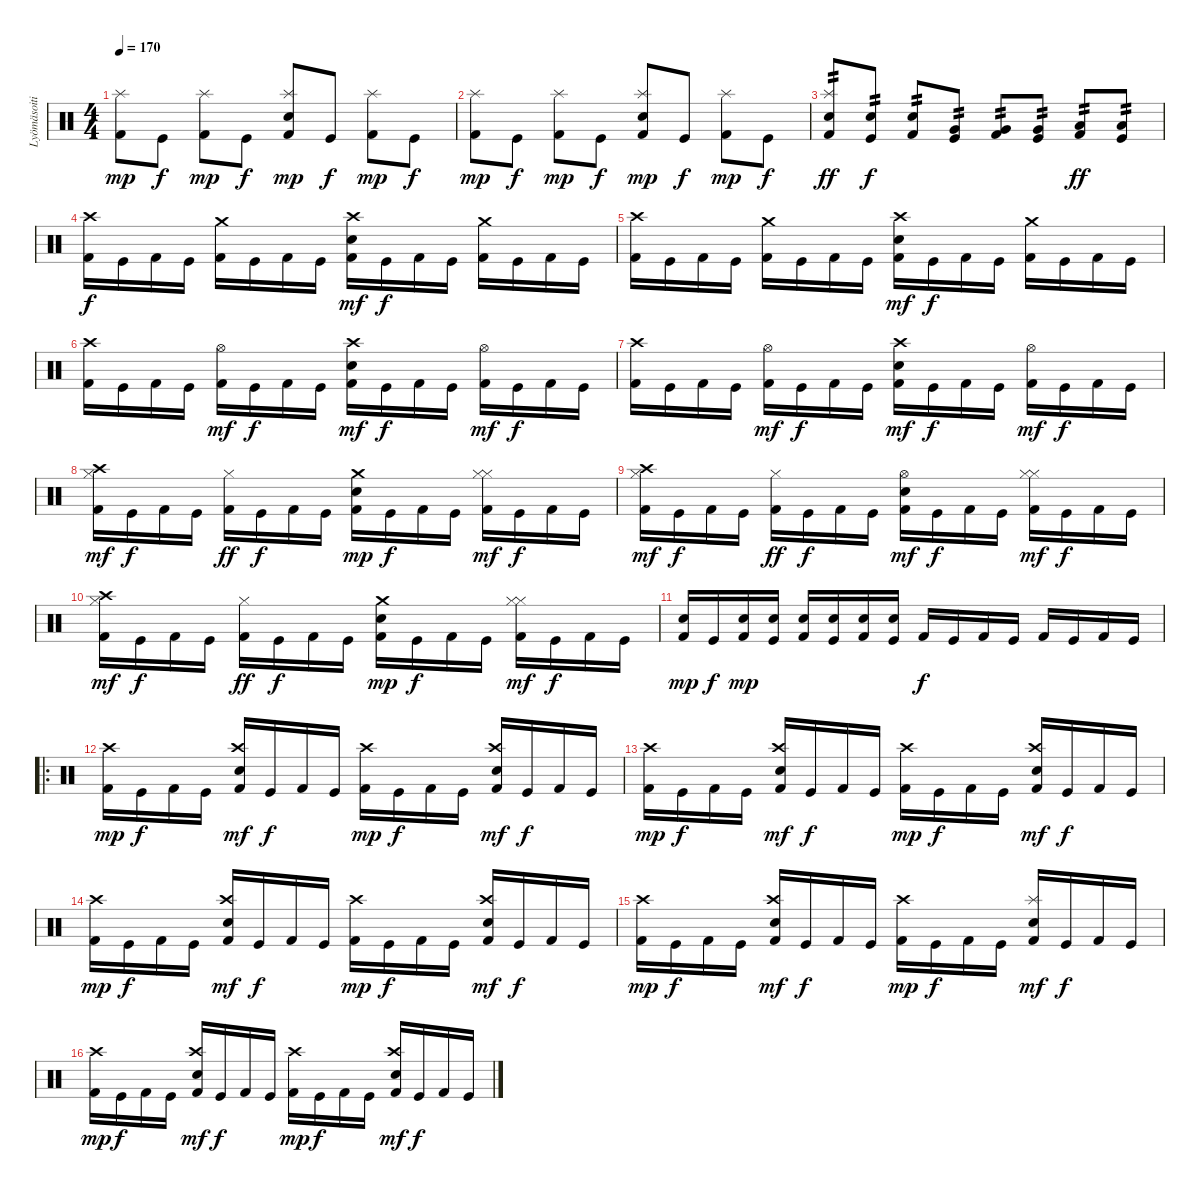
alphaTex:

\track ("Lyömäsoitin" "Lyömäsoiti") {instrument percussion}
\staff {score}
\articulation defaults
\ts (4 4)
\tempo 170
\clef neutral
\ks c
("Kick (hit) 2" "Splash (hit)").8{dy mp} "Kick (hit)".8{dy f} ("Kick (hit) 2" "Splash (hit)").8{dy mp} "Kick (hit)".8{dy f} ("Kick (hit) 2" "Splash (hit)" "Electric Snare (hit)").8{dy mp} "Kick (hit)".8{dy f} ("Kick (hit) 2" "Splash (hit)").8{dy mp} "Kick (hit)".8{dy f} |
("Kick (hit) 2" "Splash (hit)").8{dy mp} "Kick (hit)".8{dy f} ("Kick (hit) 2" "Splash (hit)").8{dy mp} "Kick (hit)".8{dy f} ("Kick (hit) 2" "Splash (hit)" "Electric Snare (hit)").8{dy mp} "Kick (hit)".8{dy f} ("Kick (hit) 2" "Splash (hit)").8{dy mp} "Kick (hit)".8{dy f} |
("Kick (hit) 2" "Electric Snare (hit)" "Splash (hit)").8{tp 2 dy ff} ("Kick (hit)" "Electric Snare (hit)").8{tp 2 dy f} ("Kick (hit) 2" "Electric Snare (hit)").8{tp 2} ("Kick (hit)" "Very Low Tom (hit)").8{tp 2} ("Kick (hit) 2" "Very Low Tom (hit)").8{tp 2} ("Kick (hit)" "Very Low Tom (hit)").8{tp 2} ("Kick (hit) 2" "Low Tom (hit)").8{tp 2 dy ff} ("Kick (hit)" "Low Tom (hit)").8{tp 2} |
("Kick (hit) 2" "Crash high (hit)").16{dy f} "Kick (hit)".16 "Kick (hit) 2".16 "Kick (hit)".16 ("Kick (hit) 2" "Crash medium (hit)").16 "Kick (hit)".16 "Kick (hit) 2".16 "Kick (hit)".16 ("Kick (hit) 2" "Electric Snare (hit)" "Crash high (hit)").16{dy mf} "Kick (hit)".16{dy f} "Kick (hit) 2".16 "Kick (hit)".16 ("Kick (hit) 2" "Crash medium (hit)").16 "Kick (hit)".16 "Kick (hit) 2".16 "Kick (hit)".16 |
("Kick (hit) 2" "Crash high (hit)").16 "Kick (hit)".16 "Kick (hit) 2".16 "Kick (hit)".16 ("Kick (hit) 2" "Crash medium (hit)").16 "Kick (hit)".16 "Kick (hit) 2".16 "Kick (hit)".16 ("Kick (hit) 2" "Electric Snare (hit)" "Crash high (hit)").16{dy mf} "Kick (hit)".16{dy f} "Kick (hit) 2".16 "Kick (hit)".16 ("Kick (hit) 2" "Crash medium (hit)").16 "Kick (hit)".16 "Kick (hit) 2".16 "Kick (hit)".16 |
("Kick (hit) 2" "Crash high (hit)").16 "Kick (hit)".16 "Kick (hit) 2".16 "Kick (hit)".16 ("Kick (hit) 2" "Hi-Hat (open)").16{dy mf} "Kick (hit)".16{dy f} "Kick (hit) 2".16 "Kick (hit)".16 ("Kick (hit) 2" "Electric Snare (hit)" "Crash high (hit)").16{dy mf} "Kick (hit)".16{dy f} "Kick (hit) 2".16 "Kick (hit)".16 ("Kick (hit) 2" "Hi-Hat (open)").16{dy mf} "Kick (hit)".16{dy f} "Kick (hit) 2".16 "Kick (hit)".16 |
("Kick (hit) 2" "Crash high (hit)").16 "Kick (hit)".16 "Kick (hit) 2".16 "Kick (hit)".16 ("Kick (hit) 2" "Hi-Hat (open)").16{dy mf} "Kick (hit)".16{dy f} "Kick (hit) 2".16 "Kick (hit)".16 ("Kick (hit) 2" "Electric Snare (hit)" "Crash high (hit)").16{dy mf} "Kick (hit)".16{dy f} "Kick (hit) 2".16 "Kick (hit)".16 ("Kick (hit) 2" "Hi-Hat (open)").16{dy mf} "Kick (hit)".16{dy f} "Kick (hit) 2".16 "Kick (hit)".16 |
("Kick (hit) 2" "Crash high (hit)" "Hi-Hat (closed)").16{dy mf} "Kick (hit)".16{dy f} "Kick (hit) 2".16 "Kick (hit)".16 ("Kick (hit) 2" "Hi-Hat (closed)").16{dy ff} "Kick (hit)".16{dy f} "Kick (hit) 2".16 "Kick (hit)".16 ("Kick (hit) 2" "Electric Snare (hit)" "Crash medium (hit)").16{dy mp} "Kick (hit)".16{dy f} "Kick (hit) 2".16 "Kick (hit)".16 ("Kick (hit) 2" "Hi-Hat (closed)" "Hi-Hat (closed)").16{dy mf} "Kick (hit)".16{dy f} "Kick (hit) 2".16 "Kick (hit)".16 |
("Kick (hit) 2" "Crash high (hit)" "Hi-Hat (closed)").16{dy mf} "Kick (hit)".16{dy f} "Kick (hit) 2".16 "Kick (hit)".16 ("Kick (hit) 2" "Hi-Hat (closed)").16{dy ff} "Kick (hit)".16{dy f} "Kick (hit) 2".16 "Kick (hit)".16 ("Kick (hit) 2" "Electric Snare (hit)" "Hi-Hat (open)").16{dy mf} "Kick (hit)".16{dy f} "Kick (hit) 2".16 "Kick (hit)".16 ("Kick (hit) 2" "Hi-Hat (closed)" "Hi-Hat (closed)").16{dy mf} "Kick (hit)".16{dy f} "Kick (hit) 2".16 "Kick (hit)".16 |
("Kick (hit) 2" "Crash high (hit)" "Hi-Hat (closed)").16{dy mf} "Kick (hit)".16{dy f} "Kick (hit) 2".16 "Kick (hit)".16 ("Kick (hit) 2" "Hi-Hat (closed)").16{dy ff} "Kick (hit)".16{dy f} "Kick (hit) 2".16 "Kick (hit)".16 ("Kick (hit) 2" "Electric Snare (hit)" "Crash medium (hit)").16{dy mp} "Kick (hit)".16{dy f} "Kick (hit) 2".16 "Kick (hit)".16 ("Kick (hit) 2" "Hi-Hat (closed)" "Hi-Hat (closed)").16{dy mf} "Kick (hit)".16{dy f} "Kick (hit) 2".16 "Kick (hit)".16 |
("Kick (hit) 2" "Electric Snare (hit)").16{dy mp} "Kick (hit)".16{dy f} ("Kick (hit) 2" "Electric Snare (hit)").16{dy mp} ("Kick (hit)" "Electric Snare (hit)").16 ("Kick (hit) 2" "Electric Snare (hit)").16 ("Kick (hit)" "Electric Snare (hit)").16 ("Kick (hit) 2" "Electric Snare (hit)").16 ("Kick (hit)" "Electric Snare (hit)").16 "Kick (hit) 2".16{dy f} "Kick (hit)".16 "Kick (hit) 2".16 "Kick (hit)".16 "Kick (hit) 2".16 "Kick (hit)".16 "Kick (hit) 2".16 "Kick (hit)".16 |
\ro
("Kick (hit) 2" "Crash high (hit)").16{dy mp} "Kick (hit)".16{dy f} "Kick (hit) 2".16 "Kick (hit)".16 ("Kick (hit) 2" "Crash high (hit)" "Snare (hit) 2").16{dy mf} "Kick (hit)".16{dy f} "Kick (hit) 2".16 "Kick (hit)".16 ("Kick (hit) 2" "Crash high (hit)").16{dy mp} "Kick (hit)".16{dy f} "Kick (hit) 2".16 "Kick (hit)".16 ("Kick (hit) 2" "Crash high (hit)" "Snare (hit) 2").16{dy mf} "Kick (hit)".16{dy f} "Kick (hit) 2".16 "Kick (hit)".16 |
("Kick (hit) 2" "Crash high (hit)").16{dy mp} "Kick (hit)".16{dy f} "Kick (hit) 2".16 "Kick (hit)".16 ("Kick (hit) 2" "Crash high (hit)" "Snare (hit) 2").16{dy mf} "Kick (hit)".16{dy f} "Kick (hit) 2".16 "Kick (hit)".16 ("Kick (hit) 2" "Crash high (hit)").16{dy mp} "Kick (hit)".16{dy f} "Kick (hit) 2".16 "Kick (hit)".16 ("Kick (hit) 2" "Crash high (hit)" "Snare (hit) 2").16{dy mf} "Kick (hit)".16{dy f} "Kick (hit) 2".16 "Kick (hit)".16 |
("Kick (hit) 2" "Crash high (hit)").16{dy mp} "Kick (hit)".16{dy f} "Kick (hit) 2".16 "Kick (hit)".16 ("Kick (hit) 2" "Crash high (hit)" "Snare (hit) 2").16{dy mf} "Kick (hit)".16{dy f} "Kick (hit) 2".16 "Kick (hit)".16 ("Kick (hit) 2" "Crash high (hit)").16{dy mp} "Kick (hit)".16{dy f} "Kick (hit) 2".16 "Kick (hit)".16 ("Kick (hit) 2" "Crash high (hit)" "Snare (hit) 2").16{dy mf} "Kick (hit)".16{dy f} "Kick (hit) 2".16 "Kick (hit)".16 |
("Kick (hit) 2" "Crash high (hit)").16{dy mp} "Kick (hit)".16{dy f} "Kick (hit) 2".16 "Kick (hit)".16 ("Kick (hit) 2" "Crash high (hit)" "Snare (hit) 2").16{dy mf} "Kick (hit)".16{dy f} "Kick (hit) 2".16 "Kick (hit)".16 ("Kick (hit) 2" "Crash high (hit)").16{dy mp} "Kick (hit)".16{dy f} "Kick (hit) 2".16 "Kick (hit)".16 ("Kick (hit) 2" "Splash (hit)" "Snare (hit) 2").16{dy mf} "Kick (hit)".16{dy f} "Kick (hit) 2".16 "Kick (hit)".16 |
("Kick (hit) 2" "Crash high (hit)").16{dy mp} "Kick (hit)".16{dy f} "Kick (hit) 2".16 "Kick (hit)".16 ("Kick (hit) 2" "Crash high (hit)" "Snare (hit) 2").16{dy mf} "Kick (hit)".16{dy f} "Kick (hit) 2".16 "Kick (hit)".16 ("Kick (hit) 2" "Crash high (hit)").16{dy mp} "Kick (hit)".16{dy f} "Kick (hit) 2".16 "Kick (hit)".16 ("Kick (hit) 2" "Crash high (hit)" "Snare (hit) 2").16{dy mf} "Kick (hit)".16{dy f} "Kick (hit) 2".16 "Kick (hit)".16
